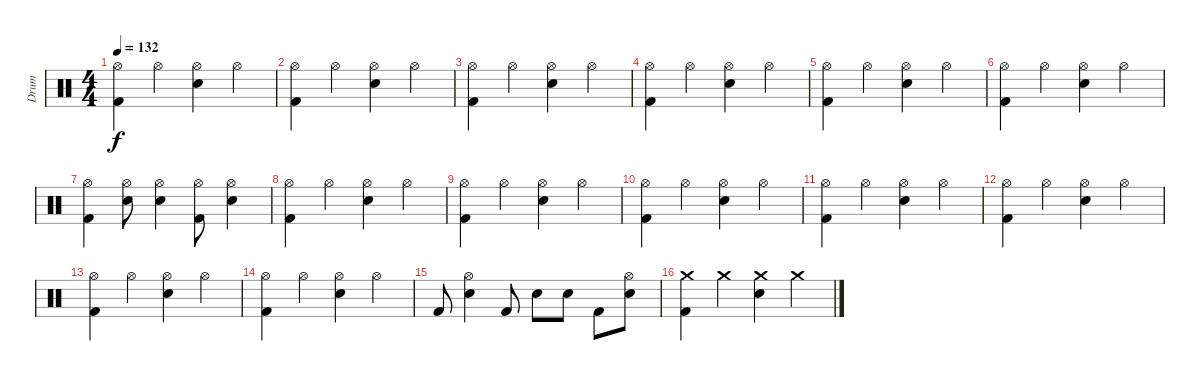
\track ("Drum" "Drum") {instrument percussion}
\staff {score}
\articulation defaults
\ts (4 4)
\tempo 132
\clef neutral
\ks c
("Hi-Hat (open)" "Kick (hit) 2").4{dy f} "Hi-Hat (open)".4 ("Hi-Hat (open)" "Snare (hit) 2").4 "Hi-Hat (open)".4 |
("Hi-Hat (open)" "Kick (hit) 2").4 "Hi-Hat (open)".4 ("Hi-Hat (open)" "Snare (hit) 2").4 "Hi-Hat (open)".4 |
("Hi-Hat (open)" "Kick (hit) 2").4 "Hi-Hat (open)".4 ("Hi-Hat (open)" "Snare (hit) 2").4 "Hi-Hat (open)".4 |
("Hi-Hat (open)" "Kick (hit) 2").4 "Hi-Hat (open)".4 ("Hi-Hat (open)" "Snare (hit) 2").4 "Hi-Hat (open)".4 |
("Hi-Hat (open)" "Kick (hit) 2").4 "Hi-Hat (open)".4 ("Hi-Hat (open)" "Snare (hit) 2").4 "Hi-Hat (open)".4 |
("Hi-Hat (open)" "Kick (hit) 2").4 "Hi-Hat (open)".4 ("Hi-Hat (open)" "Snare (hit) 2").4 "Hi-Hat (open)".4 |
("Hi-Hat (open)" "Kick (hit) 2").4 ("Hi-Hat (open)" "Snare (hit) 2").8 ("Hi-Hat (open)" "Snare (hit) 2").4 ("Hi-Hat (open)" "Kick (hit) 2").8 ("Hi-Hat (open)" "Snare (hit) 2").4 |
("Hi-Hat (open)" "Kick (hit) 2").4 "Hi-Hat (open)".4 ("Hi-Hat (open)" "Snare (hit) 2").4 "Hi-Hat (open)".4 |
("Hi-Hat (open)" "Kick (hit) 2").4 "Hi-Hat (open)".4 ("Hi-Hat (open)" "Snare (hit) 2").4 "Hi-Hat (open)".4 |
("Hi-Hat (open)" "Kick (hit) 2").4 "Hi-Hat (open)".4 ("Hi-Hat (open)" "Snare (hit) 2").4 "Hi-Hat (open)".4 |
("Hi-Hat (open)" "Kick (hit) 2").4 "Hi-Hat (open)".4 ("Hi-Hat (open)" "Snare (hit) 2").4 "Hi-Hat (open)".4 |
("Hi-Hat (open)" "Kick (hit) 2").4 "Hi-Hat (open)".4 ("Hi-Hat (open)" "Snare (hit) 2").4 "Hi-Hat (open)".4 |
("Hi-Hat (open)" "Kick (hit) 2").4 "Hi-Hat (open)".4 ("Hi-Hat (open)" "Snare (hit) 2").4 "Hi-Hat (open)".4 |
("Hi-Hat (open)" "Kick (hit) 2").4 "Hi-Hat (open)".4 ("Hi-Hat (open)" "Snare (hit) 2").4 "Hi-Hat (open)".4 |
"Kick (hit) 2".8 ("Hi-Hat (open)" "Snare (hit) 2").4 "Kick (hit) 2".8 "Snare (hit) 2".8 "Snare (hit) 2".8 "Kick (hit) 2".8 ("Hi-Hat (open)" "Snare (hit) 2").8 |
("Crash medium (hit)" "Kick (hit) 2").4 "Crash medium (hit)".4 ("Crash medium (hit)" "Snare (hit) 2").4 "Crash medium (hit)".4
